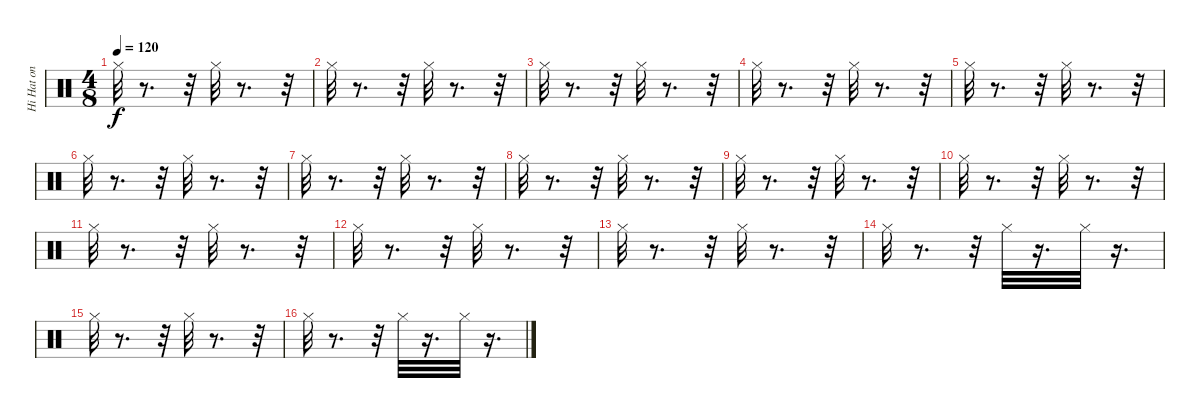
\track ("Hi Hat on BD" "Hi Hat on ") {instrument percussion}
\staff {score}
\articulation defaults
\ts (4 8)
\tempo 120
\clef neutral
\ks c "Hi-Hat (closed)".32{dy f}
r.8{d} r.32 "Hi-Hat (closed)".32 r.8{d} r.32 |
"Hi-Hat (closed)".32 r.8{d} r.32 "Hi-Hat (closed)".32 r.8{d} r.32 |
"Hi-Hat (closed)".32 r.8{d} r.32 "Hi-Hat (closed)".32 r.8{d} r.32 |
"Hi-Hat (closed)".32 r.8{d} r.32 "Hi-Hat (closed)".32 r.8{d} r.32 |
"Hi-Hat (closed)".32 r.8{d} r.32 "Hi-Hat (closed)".32 r.8{d} r.32 |
"Hi-Hat (closed)".32 r.8{d} r.32 "Hi-Hat (closed)".32 r.8{d} r.32 |
"Hi-Hat (closed)".32 r.8{d} r.32 "Hi-Hat (closed)".32 r.8{d} r.32 |
"Hi-Hat (closed)".32 r.8{d} r.32 "Hi-Hat (closed)".32 r.8{d} r.32 |
"Hi-Hat (closed)".32 r.8{d} r.32 "Hi-Hat (closed)".32 r.8{d} r.32 |
"Hi-Hat (closed)".32 r.8{d} r.32 "Hi-Hat (closed)".32 r.8{d} r.32 |
"Hi-Hat (closed)".32 r.8{d} r.32 "Hi-Hat (closed)".32 r.8{d} r.32 |
"Hi-Hat (closed)".32 r.8{d} r.32 "Hi-Hat (closed)".32 r.8{d} r.32 |
"Hi-Hat (closed)".32 r.8{d} r.32 "Hi-Hat (closed)".32 r.8{d} r.32 |
"Hi-Hat (closed)".32 r.8{d} r.32 "Hi-Hat (closed)".32 r.16{d} "Hi-Hat (closed)".32 r.16{d} |
"Hi-Hat (closed)".32 r.8{d} r.32 "Hi-Hat (closed)".32 r.8{d} r.32 |
"Hi-Hat (closed)".32 r.8{d} r.32 "Hi-Hat (closed)".32 r.16{d} "Hi-Hat (closed)".32 r.16{d}
